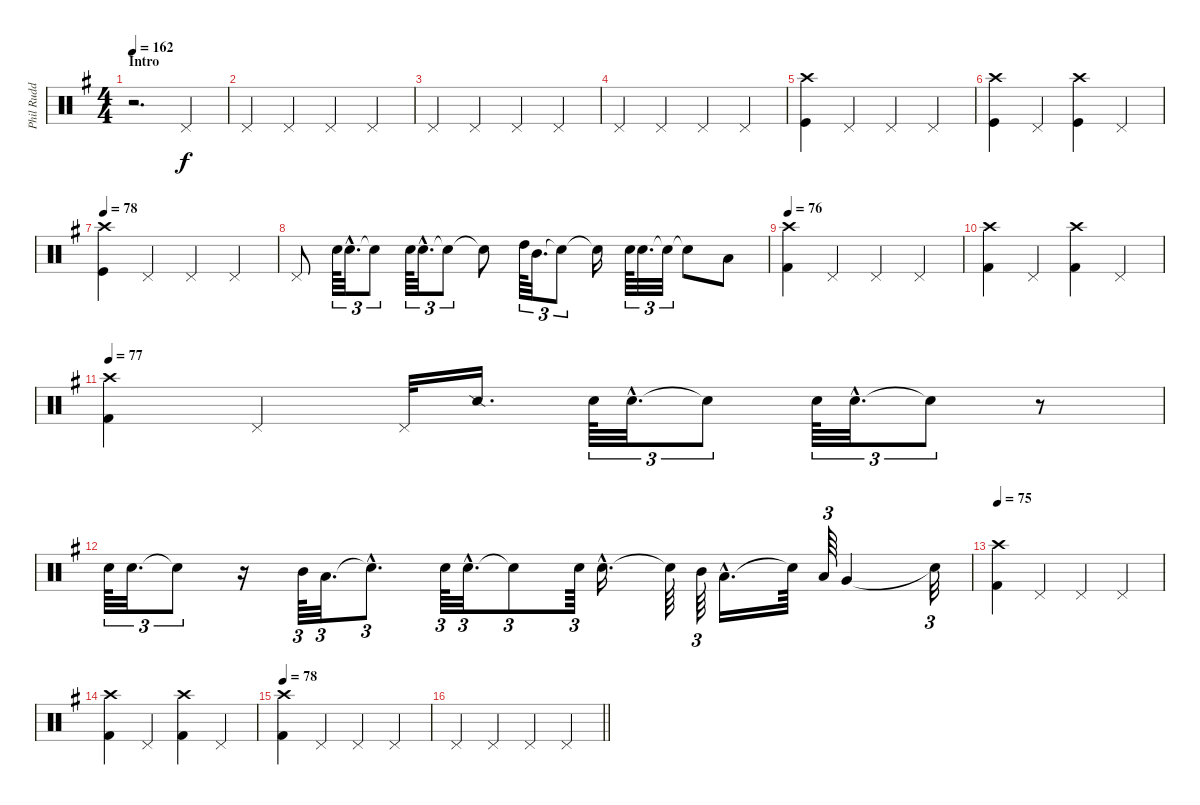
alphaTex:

\track ("Phil Rudd" "Phil Rudd") {instrument percussion}
\staff {score}
\articulation defaults
\ts (4 4)
\section ("" "Intro")
\tempo 162
\tempo 76
\tempo 162
\clef neutral
\ks eminor
r.2{d dy f} "Pedal Hi-Hat (hit)".4 |
"Pedal Hi-Hat (hit)".4 "Pedal Hi-Hat (hit)".4 "Pedal Hi-Hat (hit)".4 "Pedal Hi-Hat (hit)".4 |
"Pedal Hi-Hat (hit)".4 "Pedal Hi-Hat (hit)".4 "Pedal Hi-Hat (hit)".4 "Pedal Hi-Hat (hit)".4 |
"Pedal Hi-Hat (hit)".4 "Pedal Hi-Hat (hit)".4 "Pedal Hi-Hat (hit)".4 "Pedal Hi-Hat (hit)".4 |
("Crash high (hit)" "Kick (hit)").4 "Pedal Hi-Hat (hit)".4 "Pedal Hi-Hat (hit)".4 "Pedal Hi-Hat (hit)".4 |
("Crash high (hit)" "Kick (hit)").4 "Pedal Hi-Hat (hit)".4 ("Crash high (hit)" "Kick (hit)").4 "Pedal Hi-Hat (hit)".4 |
\tempo 78
("Kick (hit)" "Crash high (hit)").4 "Pedal Hi-Hat (hit)".4 "Pedal Hi-Hat (hit)".4 "Pedal Hi-Hat (hit)".4 |
"Pedal Hi-Hat (hit)".8 "Snare (hit) 2".64{tu (3 2)} "Snare (hit) 2"{hac}.32{d tu (3 2)} "Snare (hit)"{t}.8{tu (3 2)} "Snare (hit) 2".64{tu (3 2)} "Snare (hit) 2"{hac}.32{d tu (3 2)} "Snare (hit)"{t}.8{tu (3 2)} "Snare (hit)"{t}.8 "High Tom (hit)".64{tu (3 2)} "Mid Tom (hit)".32{d tu (3 2)} "Snare (hit)"{t}.8{tu (3 2)} "Snare (hit)"{t}.16 "Snare (hit) 2".64{tu (3 2)} "Snare (hit) 2".32{d tu (3 2)} "Snare (hit)"{t}.32{tu (3 2)} "Snare (hit)"{t}.8 "Low Tom (hit)".8 |
\tempo 76
("Crash high (hit)" "Kick (hit) 2").4 "Pedal Hi-Hat (hit)".4 "Pedal Hi-Hat (hit)".4 "Pedal Hi-Hat (hit)".4 |
("Crash high (hit)" "Kick (hit) 2").4 "Pedal Hi-Hat (hit)".4 ("Crash high (hit)" "Kick (hit) 2").4 "Pedal Hi-Hat (hit)".4 |
\tempo 77
("Crash high (hit)" "Kick (hit) 2").4 "Pedal Hi-Hat (hit)".4 "Pedal Hi-Hat (hit)".32 "Snare (side stick) 2".16{d} "Snare (hit) 2".64{tu (3 2)} "Snare (hit) 2"{hac}.32{d tu (3 2)} "Snare (hit)"{t}.8{tu (3 2)} "Snare (hit) 2".64{tu (3 2)} "Snare (hit) 2"{hac}.32{d tu (3 2)} "Snare (hit)"{t}.8{tu (3 2)} r.8 |
"Snare (hit) 2".64{tu (3 2)} "Snare (hit) 2".32{d tu (3 2)} "Snare (hit)"{t}.8{tu (3 2)} r.16 "Mid Tom (hit)".64{tu (3 2)} "Low Tom (hit)".32{d tu (3 2)} "Snare (hit)"{hac t}.8{d tu (3 2)} "Snare (hit) 2".64{tu (3 2)} "Snare (hit) 2"{hac}.32{d tu (3 2)} "Snare (hit)"{t}.8{tu (3 2)} "Snare (hit) 2".64{tu (3 2)} "Snare (hit) 2"{hac}.16{d} "Snare (hit)"{t}.64 "Mid Tom (hit)".64{tu (3 2)} "Low Tom (hit)"{hac}.16{d} "Snare (hit)"{t}.64 "Low Tom (hit)".64{tu (3 2)} "Very Low Tom (hit)".4 "Snare (hit)"{t}.32{tu (3 2)} |
\tempo 75
("Crash high (hit)" "Kick (hit) 2").4 "Pedal Hi-Hat (hit)".4 "Pedal Hi-Hat (hit)".4 "Pedal Hi-Hat (hit)".4 |
("Crash high (hit)" "Kick (hit) 2").4 "Pedal Hi-Hat (hit)".4 ("Kick (hit) 2" "Crash high (hit)").4 "Pedal Hi-Hat (hit)".4 |
\tempo 78
("Kick (hit) 2" "Crash high (hit)").4 "Pedal Hi-Hat (hit)".4 "Pedal Hi-Hat (hit)".4 "Pedal Hi-Hat (hit)".4 |
\barLineRight lightlight "Pedal Hi-Hat (hit)".4 "Pedal Hi-Hat (hit)".4 "Pedal Hi-Hat (hit)".4 "Pedal Hi-Hat (hit)".4
